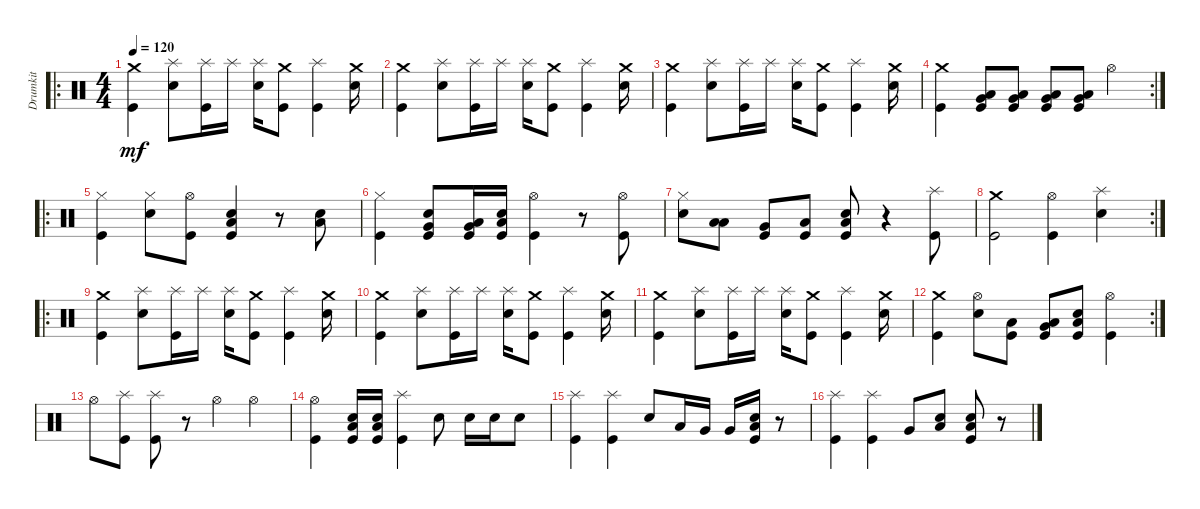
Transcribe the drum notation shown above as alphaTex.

\track ("Drumkit" "Drumkit") {instrument percussion}
\staff {score}
\articulation defaults
\ro
\ts (4 4)
\tempo 120
\clef neutral
\ks c
("Kick (hit)" "Crash medium (hit)").4{dy mf} ("Snare (hit) 2" "Splash (hit)").8 ("Kick (hit)" "Splash (hit)").16 "Splash (hit)".16 ("Snare (hit) 2" "Splash (hit)").16 ("Kick (hit)" "Crash medium (hit)").8 ("Kick (hit)" "Splash (hit)").4 ("Crash medium (hit)" "Snare (hit) 2").16 |
("Kick (hit)" "Crash medium (hit)").4 ("Snare (hit) 2" "Splash (hit)").8 ("Kick (hit)" "Splash (hit)").16 "Splash (hit)".16 ("Snare (hit) 2" "Splash (hit)").16 ("Kick (hit)" "Crash medium (hit)").8 ("Kick (hit)" "Splash (hit)").4 ("Crash medium (hit)" "Snare (hit) 2").16 |
("Kick (hit)" "Crash medium (hit)").4 ("Snare (hit) 2" "Splash (hit)").8 ("Kick (hit)" "Splash (hit)").16 "Splash (hit)".16 ("Snare (hit) 2" "Splash (hit)").16 ("Kick (hit)" "Crash medium (hit)").8 ("Kick (hit)" "Splash (hit)").4 ("Crash medium (hit)" "Snare (hit) 2").16 |
\rc 2
("Kick (hit)" "Crash medium (hit)").4 ("Kick (hit)" "Low Floor Tom (hit)" "Very Low Tom (hit)").8 ("Kick (hit)" "Low Floor Tom (hit)" "Very Low Tom (hit)").8 ("Kick (hit)" "Low Floor Tom (hit)" "Very Low Tom (hit)").8 ("Kick (hit)" "Low Floor Tom (hit)" "Very Low Tom (hit)").8 "Hi-Hat (open)".4 |
\ro
("Kick (hit)" "Hi-Hat (closed)").4 ("Snare (hit) 2" "Hi-Hat (closed)").8 ("Kick (hit)" "Hi-Hat (open)").8 ("Snare (hit) 2" "Low Floor Tom (hit)" "Kick (hit)").4 r.8 ("Snare (hit) 2" "Low Floor Tom (hit)").8 |
("Kick (hit)" "Hi-Hat (closed)").4 ("Kick (hit)" "Very Low Tom (hit)" "Snare (hit) 2").8 ("Kick (hit)" "Low Tom (hit)" "Very Low Tom (hit)").16 ("Kick (hit)" "Snare (hit) 2" "Low Floor Tom (hit)").16 ("Hi-Hat (open)" "Kick (hit)").4 r.8 ("Kick (hit)" "Hi-Hat (open)").8 |
("Snare (hit) 2" "Hi-Hat (closed)").8 ("Low Tom (hit)" "Low Floor Tom (hit)").8 ("Very Low Tom (hit)" "Kick (hit)").8 ("Low Floor Tom (hit)" "Kick (hit)").8 ("Low Floor Tom (hit)" "Snare (hit) 2" "Kick (hit)").8 r.4 ("Kick (hit)" "Splash (hit)").8 |
\rc 2
("Crash medium (hit)" "Kick (hit)").2 ("Hi-Hat (open)" "Kick (hit)").4 ("Snare (hit) 2" "Splash (hit)").4 |
\ro
("Kick (hit)" "Crash medium (hit)").4 ("Snare (hit) 2" "Splash (hit)").8 ("Kick (hit)" "Splash (hit)").16 "Splash (hit)".16 ("Snare (hit) 2" "Splash (hit)").16 ("Kick (hit)" "Crash medium (hit)").8 ("Kick (hit)" "Splash (hit)").4 ("Crash medium (hit)" "Snare (hit) 2").16 |
("Kick (hit)" "Crash medium (hit)").4 ("Snare (hit) 2" "Splash (hit)").8 ("Kick (hit)" "Splash (hit)").16 "Splash (hit)".16 ("Snare (hit) 2" "Splash (hit)").16 ("Kick (hit)" "Crash medium (hit)").8 ("Kick (hit)" "Splash (hit)").4 ("Crash medium (hit)" "Snare (hit) 2").16 |
("Kick (hit)" "Crash medium (hit)").4 ("Snare (hit) 2" "Splash (hit)").8 ("Kick (hit)" "Splash (hit)").16 "Splash (hit)".16 ("Snare (hit) 2" "Splash (hit)").16 ("Kick (hit)" "Crash medium (hit)").8 ("Kick (hit)" "Splash (hit)").4 ("Crash medium (hit)" "Snare (hit) 2").16 |
\rc 2
("Kick (hit)" "Crash medium (hit)").4 ("Hi-Hat (open)" "Snare (hit) 2").8 ("Kick (hit)" "Low Tom (hit)").8 ("Low Floor Tom (hit)" "Very Low Tom (hit)" "Kick (hit)").8 ("Kick (hit)" "Low Floor Tom (hit)" "Snare (hit) 2").8 ("Kick (hit)" "Hi-Hat (open)").4 |
"Hi-Hat (open)".8 ("Kick (hit)" "Splash (hit)").8 ("Kick (hit)" "Splash (hit)").8 r.8 "Hi-Hat (open)".4 "Hi-Hat (open)".4 |
("Hi-Hat (open)" "Kick (hit)").4 ("Kick (hit)" "Low Floor Tom (hit)" "Snare (hit) 2").16 ("Kick (hit)" "Low Floor Tom (hit)" "Snare (hit) 2").16 ("Kick (hit)" "Splash (hit)").4 "Snare (hit) 2".8 "Snare (hit) 2".16 "Snare (hit) 2".16 "Snare (hit) 2".8 |
("Kick (hit)" "Splash (hit)").4 ("Kick (hit)" "Splash (hit)").4 "Snare (hit) 2".8 "Low Tom (hit)".16 "Very Low Tom (hit)".16 "Very Low Tom (hit)".16 ("Low Floor Tom (hit)" "Kick (hit)" "Snare (hit) 2").16 r.8 |
("Kick (hit)" "Splash (hit)").4 ("Kick (hit)" "Splash (hit)").4 "Very Low Tom (hit)".8 ("Snare (hit) 2" "Low Floor Tom (hit)").8 ("Low Floor Tom (hit)" "Snare (hit) 2" "Kick (hit)").8 r.8
